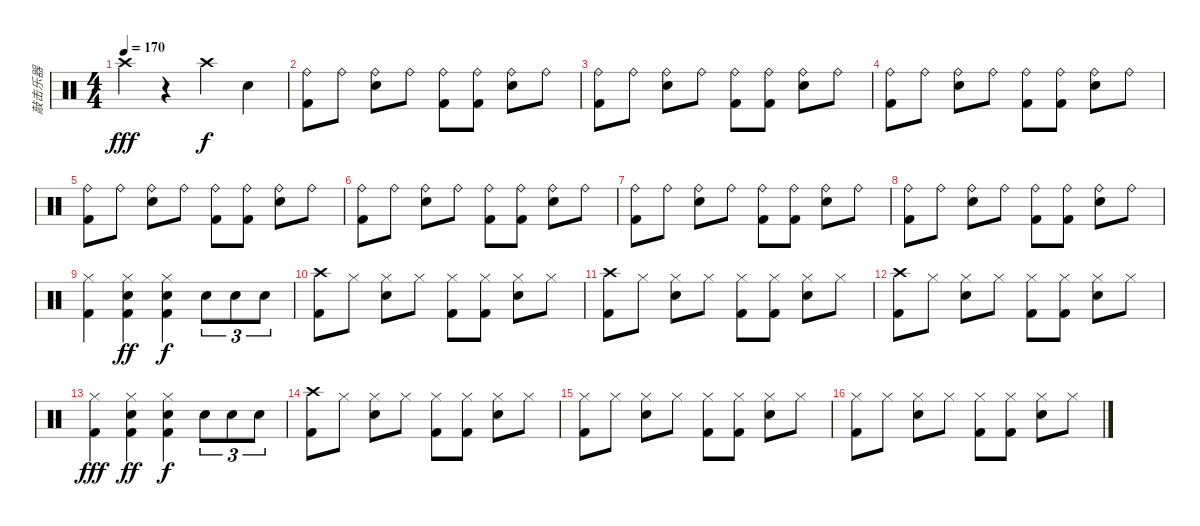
\track ("敲击乐器" "敲击乐器") {instrument percussion}
\staff {score}
\articulation defaults
\ts (4 4)
\tempo 170
\clef neutral
\ks c "Crash high (hit)".4{dy fff}
r.4 "Crash high (hit)".4{dy f} "Snare (hit) 2".4 |
("Ride (bell)" "Kick (hit) 2").8 "Ride (bell)".8 ("Ride (bell)" "Snare (hit) 2").8 "Ride (bell)".8 ("Ride (bell)" "Kick (hit) 2").8 ("Ride (bell)" "Kick (hit) 2").8 ("Ride (bell)" "Snare (hit) 2").8 "Ride (bell)".8 |
("Ride (bell)" "Kick (hit) 2").8 "Ride (bell)".8 ("Ride (bell)" "Snare (hit) 2").8 "Ride (bell)".8 ("Ride (bell)" "Kick (hit) 2").8 ("Ride (bell)" "Kick (hit) 2").8 ("Ride (bell)" "Snare (hit) 2").8 "Ride (bell)".8 |
("Ride (bell)" "Kick (hit) 2").8 "Ride (bell)".8 ("Ride (bell)" "Snare (hit) 2").8 "Ride (bell)".8 ("Ride (bell)" "Kick (hit) 2").8 ("Ride (bell)" "Kick (hit) 2").8 ("Ride (bell)" "Snare (hit) 2").8 "Ride (bell)".8 |
("Ride (bell)" "Kick (hit) 2").8 "Ride (bell)".8 ("Ride (bell)" "Snare (hit) 2").8 "Ride (bell)".8 ("Ride (bell)" "Kick (hit) 2").8 ("Ride (bell)" "Kick (hit) 2").8 ("Ride (bell)" "Snare (hit) 2").8 "Ride (bell)".8 |
("Ride (bell)" "Kick (hit) 2").8 "Ride (bell)".8 ("Ride (bell)" "Snare (hit) 2").8 "Ride (bell)".8 ("Ride (bell)" "Kick (hit) 2").8 ("Ride (bell)" "Kick (hit) 2").8 ("Ride (bell)" "Snare (hit) 2").8 "Ride (bell)".8 |
("Ride (bell)" "Kick (hit) 2").8 "Ride (bell)".8 ("Ride (bell)" "Snare (hit) 2").8 "Ride (bell)".8 ("Ride (bell)" "Kick (hit) 2").8 ("Ride (bell)" "Kick (hit) 2").8 ("Ride (bell)" "Snare (hit) 2").8 "Ride (bell)".8 |
("Ride (bell)" "Kick (hit) 2").8 "Ride (bell)".8 ("Ride (bell)" "Snare (hit) 2").8 "Ride (bell)".8 ("Ride (bell)" "Kick (hit) 2").8 ("Ride (bell)" "Kick (hit) 2").8 ("Ride (bell)" "Snare (hit) 2").8 "Ride (bell)".8 |
("Hi-Hat (closed)" "Kick (hit) 2").4 ("Hi-Hat (closed)" "Kick (hit) 2" "Snare (hit) 2").4{dy ff} ("Hi-Hat (closed)" "Kick (hit) 2" "Snare (hit) 2").4{dy f} "Snare (hit) 2".8{tu (3 2)} "Snare (hit) 2".8{tu (3 2)} "Snare (hit) 2".8{tu (3 2)} |
("Crash high (hit)" "Kick (hit) 2").8 "Hi-Hat (closed)".8 ("Hi-Hat (closed)" "Snare (hit) 2").8 "Hi-Hat (closed)".8 ("Hi-Hat (closed)" "Kick (hit) 2").8 ("Hi-Hat (closed)" "Kick (hit) 2").8 ("Hi-Hat (closed)" "Snare (hit) 2").8 "Hi-Hat (closed)".8 |
("Crash high (hit)" "Kick (hit) 2").8 "Hi-Hat (closed)".8 ("Hi-Hat (closed)" "Snare (hit) 2").8 "Hi-Hat (closed)".8 ("Hi-Hat (closed)" "Kick (hit) 2").8 ("Hi-Hat (closed)" "Kick (hit) 2").8 ("Hi-Hat (closed)" "Snare (hit) 2").8 "Hi-Hat (closed)".8 |
("Crash high (hit)" "Kick (hit) 2").8 "Hi-Hat (closed)".8 ("Hi-Hat (closed)" "Snare (hit) 2").8 "Hi-Hat (closed)".8 ("Hi-Hat (closed)" "Kick (hit) 2").8 ("Hi-Hat (closed)" "Kick (hit) 2").8 ("Hi-Hat (closed)" "Snare (hit) 2").8 "Hi-Hat (closed)".8 |
("Hi-Hat (closed)" "Kick (hit) 2").4{dy fff} ("Hi-Hat (closed)" "Kick (hit) 2" "Snare (hit) 2").4{dy ff} ("Hi-Hat (closed)" "Kick (hit) 2" "Snare (hit) 2").4{dy f} "Snare (hit) 2".8{tu (3 2)} "Snare (hit) 2".8{tu (3 2)} "Snare (hit) 2".8{tu (3 2)} |
("Crash high (hit)" "Kick (hit) 2").8 "Hi-Hat (closed)".8 ("Hi-Hat (closed)" "Snare (hit) 2").8 "Hi-Hat (closed)".8 ("Hi-Hat (closed)" "Kick (hit) 2").8 ("Hi-Hat (closed)" "Kick (hit) 2").8 ("Hi-Hat (closed)" "Snare (hit) 2").8 "Hi-Hat (closed)".8 |
("Hi-Hat (closed)" "Kick (hit) 2").8 "Hi-Hat (closed)".8 ("Hi-Hat (closed)" "Snare (hit) 2").8 "Hi-Hat (closed)".8 ("Hi-Hat (closed)" "Kick (hit) 2").8 ("Hi-Hat (closed)" "Kick (hit) 2").8 ("Hi-Hat (closed)" "Snare (hit) 2").8 "Hi-Hat (closed)".8 |
("Hi-Hat (closed)" "Kick (hit) 2").8 "Hi-Hat (closed)".8 ("Hi-Hat (closed)" "Snare (hit) 2").8 "Hi-Hat (closed)".8 ("Hi-Hat (closed)" "Kick (hit) 2").8 ("Hi-Hat (closed)" "Kick (hit) 2").8 ("Hi-Hat (closed)" "Snare (hit) 2").8 "Hi-Hat (closed)".8
